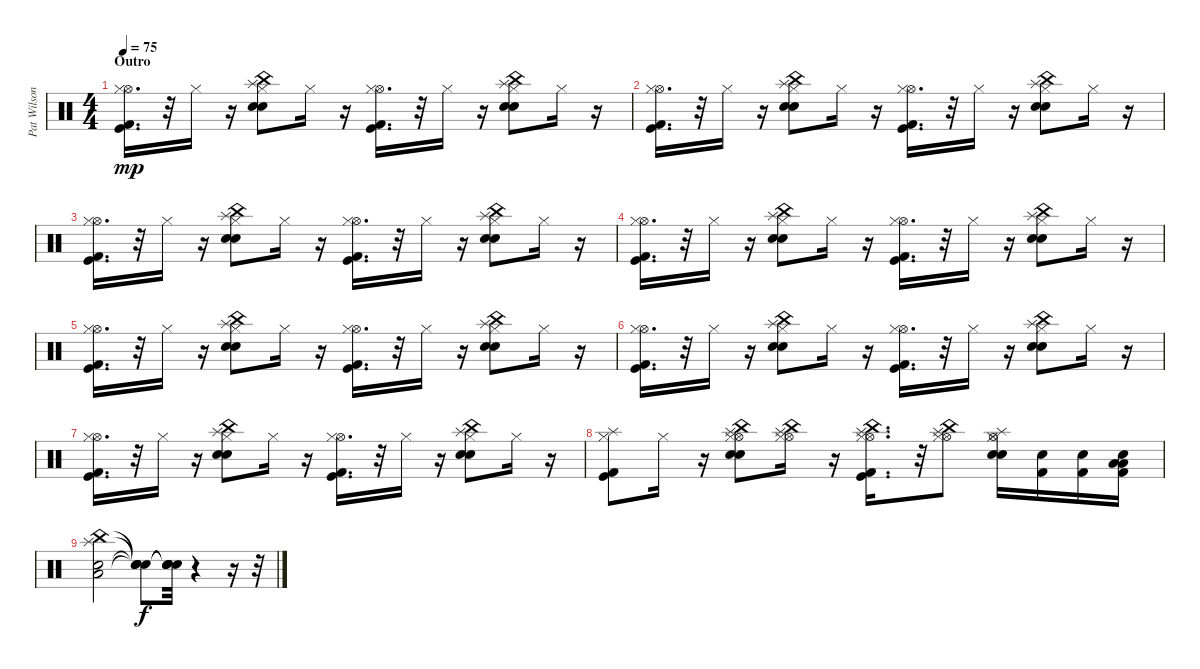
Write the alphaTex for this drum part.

\track ("Pat Wilson - Drums" "Pat Wilson") {instrument percussion}
\staff {score}
\articulation defaults
\ts (4 4)
\section ("" "Outro")
\tempo 75
\clef neutral
\ks c
("Hi-Hat (open)" "Kick (hit) 2" "Kick (hit)" "Hi-Hat (closed)").16{d dy mp} r.32 "Hi-Hat (closed)".16 r.16 ("Splash (hit)" "China (hit)" "Snare (hit) 2" "Electric Snare (hit)" "Hi-Hat (closed)").8 "Hi-Hat (closed)".16 r.16 ("Hi-Hat (open)" "Kick (hit) 2" "Kick (hit)" "Hi-Hat (closed)").16{d} r.32 "Hi-Hat (closed)".16 r.16 ("Splash (hit)" "China (hit)" "Snare (hit) 2" "Electric Snare (hit)" "Hi-Hat (closed)").8 "Hi-Hat (closed)".16 r.16 |
("Hi-Hat (open)" "Kick (hit) 2" "Kick (hit)" "Hi-Hat (closed)").16{d} r.32 "Hi-Hat (closed)".16 r.16 ("Splash (hit)" "China (hit)" "Snare (hit) 2" "Electric Snare (hit)" "Hi-Hat (closed)").8 "Hi-Hat (closed)".16 r.16 ("Hi-Hat (open)" "Kick (hit) 2" "Kick (hit)" "Hi-Hat (closed)").16{d} r.32 "Hi-Hat (closed)".16 r.16 ("Splash (hit)" "China (hit)" "Snare (hit) 2" "Electric Snare (hit)" "Hi-Hat (closed)").8 "Hi-Hat (closed)".16 r.16 |
("Hi-Hat (open)" "Kick (hit) 2" "Kick (hit)" "Hi-Hat (closed)").16{d} r.32 "Hi-Hat (closed)".16 r.16 ("Splash (hit)" "China (hit)" "Snare (hit) 2" "Electric Snare (hit)" "Hi-Hat (closed)").8 "Hi-Hat (closed)".16 r.16 ("Hi-Hat (open)" "Kick (hit) 2" "Kick (hit)" "Hi-Hat (closed)").16{d} r.32 "Hi-Hat (closed)".16 r.16 ("Splash (hit)" "China (hit)" "Snare (hit) 2" "Electric Snare (hit)" "Hi-Hat (closed)").8 "Hi-Hat (closed)".16 r.16 |
("Hi-Hat (open)" "Kick (hit) 2" "Kick (hit)" "Hi-Hat (closed)").16{d} r.32 "Hi-Hat (closed)".16 r.16 ("Splash (hit)" "China (hit)" "Snare (hit) 2" "Electric Snare (hit)" "Hi-Hat (closed)").8 "Hi-Hat (closed)".16 r.16 ("Hi-Hat (open)" "Kick (hit) 2" "Kick (hit)" "Hi-Hat (closed)").16{d} r.32 "Hi-Hat (closed)".16 r.16 ("Splash (hit)" "China (hit)" "Snare (hit) 2" "Electric Snare (hit)" "Hi-Hat (closed)").8 "Hi-Hat (closed)".16 r.16 |
("Hi-Hat (open)" "Kick (hit) 2" "Kick (hit)" "Hi-Hat (closed)").16{d} r.32 "Hi-Hat (closed)".16 r.16 ("Splash (hit)" "China (hit)" "Snare (hit) 2" "Electric Snare (hit)" "Hi-Hat (closed)").8 "Hi-Hat (closed)".16 r.16 ("Hi-Hat (open)" "Kick (hit) 2" "Kick (hit)" "Hi-Hat (closed)").16{d} r.32 "Hi-Hat (closed)".16 r.16 ("Splash (hit)" "China (hit)" "Snare (hit) 2" "Electric Snare (hit)" "Hi-Hat (closed)").8 "Hi-Hat (closed)".16 r.16 |
("Hi-Hat (open)" "Kick (hit) 2" "Kick (hit)" "Hi-Hat (closed)").16{d} r.32 "Hi-Hat (closed)".16 r.16 ("Splash (hit)" "China (hit)" "Snare (hit) 2" "Electric Snare (hit)" "Hi-Hat (closed)").8 "Hi-Hat (closed)".16 r.16 ("Hi-Hat (open)" "Kick (hit) 2" "Kick (hit)" "Hi-Hat (closed)").16{d} r.32 "Hi-Hat (closed)".16 r.16 ("Splash (hit)" "China (hit)" "Snare (hit) 2" "Electric Snare (hit)" "Hi-Hat (closed)").8 "Hi-Hat (closed)".16 r.16 |
("Hi-Hat (open)" "Kick (hit) 2" "Kick (hit)" "Hi-Hat (closed)").16{d} r.32 "Hi-Hat (closed)".16 r.16 ("Splash (hit)" "China (hit)" "Snare (hit) 2" "Electric Snare (hit)" "Hi-Hat (closed)").8 "Hi-Hat (closed)".16 r.16 ("Kick (hit) 2" "Kick (hit)" "Hi-Hat (open)" "Hi-Hat (closed)").16{d} r.32 "Hi-Hat (closed)".16 r.16 ("Splash (hit)" "China (hit)" "Snare (hit) 2" "Electric Snare (hit)" "Hi-Hat (closed)").8 "Hi-Hat (closed)".16 r.16 |
("Splash (hit)" "Kick (hit) 2" "Kick (hit)" "Hi-Hat (closed)").8 "Hi-Hat (closed)".16 r.16 ("Splash (hit)" "China (hit)" "Snare (hit) 2" "Electric Snare (hit)" "Hi-Hat (open)" "Hi-Hat (closed)").8 ("Hi-Hat (open)" "Hi-Hat (closed)" "China (hit)" "Splash (hit)").16 r.16 ("Kick (hit) 2" "Kick (hit)" "Hi-Hat (open)" "Hi-Hat (closed)" "China (hit)" "Splash (hit)").16{d} r.32 ("Hi-Hat (open)" "Hi-Hat (closed)" "China (hit)" "Splash (hit)").8 ("Electric Snare (hit)" "Snare (hit) 2" "Hi-Hat (open)" "Hi-Hat (closed)" "Splash (hit)").16 ("Kick (hit) 2" "Electric Snare (hit)").16 ("Electric Snare (hit)" "Kick (hit) 2").16 ("Electric Snare (hit)" "Low Floor Tom (hit)" "Low Floor Tom (hit)" "Kick (hit) 2").16 |
("Low Tom (hit)" "Electric Snare (hit)" "China (hit)" "Splash (hit)").2 ("Snare (hit)"{t} "Snare (hit)"{t} "Snare (hit)"{t} "Snare (hit)"{t}).8{dy f} ("Snare (hit)"{t} "Snare (hit)"{t} "Snare (hit)"{t} "Snare (hit)"{t}).32 r.4 r.16 r.32
